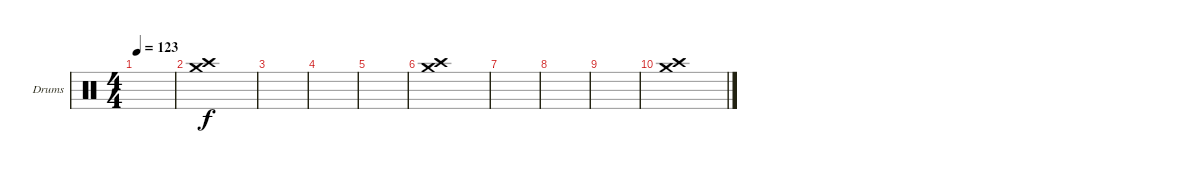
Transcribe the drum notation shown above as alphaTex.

\defaultSystemsLayout 4
\bracketExtendMode groupsimilarinstruments
\firstSystemTrackNameOrientation horizontal
\otherSystemsTrackNameOrientation horizontal
\track ("Drumkit" "Drums") {instrument percussion}
\staff {score}
\articulation defaults
\ts (4 4)
\tempo 123
\clef neutral
\ks c
|
("Crash medium (hit)" "Crash high (hit)").1 |
|
|
|
("Crash medium (hit)" "Crash high (hit)").1 |
|
|
|
("Crash medium (hit)" "Crash high (hit)").1
